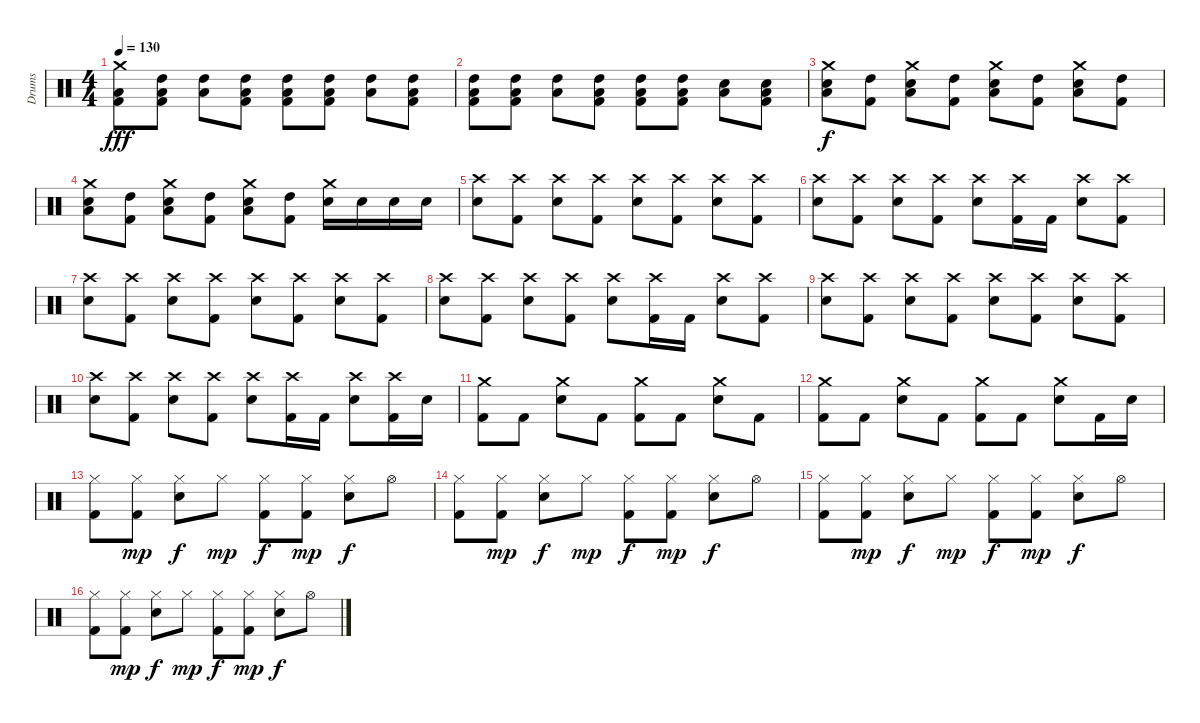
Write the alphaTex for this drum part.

\track ("Drums" "Drums") {instrument percussion}
\staff {score}
\articulation defaults
\ts (4 4)
\tempo 130
\clef neutral
\ks c
("Crash medium (hit)" "Low Tom (hit)" "Kick (hit) 2").8{dy fff} ("High Tom (hit)" "Low Tom (hit)" "Kick (hit) 2").8 ("High Tom (hit)" "Low Tom (hit)").8 ("High Tom (hit)" "Low Tom (hit)" "Kick (hit) 2").8 ("High Tom (hit)" "Low Tom (hit)" "Kick (hit) 2").8 ("High Tom (hit)" "Low Tom (hit)" "Kick (hit) 2").8 ("Low Tom (hit)" "High Tom (hit)").8 ("High Tom (hit)" "Low Tom (hit)" "Kick (hit) 2").8 |
("High Tom (hit)" "Low Tom (hit)" "Kick (hit) 2").8 ("High Tom (hit)" "Low Tom (hit)" "Kick (hit) 2").8 ("High Tom (hit)" "Low Tom (hit)").8 ("High Tom (hit)" "Low Tom (hit)" "Kick (hit) 2").8 ("High Tom (hit)" "Low Tom (hit)" "Kick (hit) 2").8 ("High Tom (hit)" "Low Tom (hit)" "Kick (hit) 2").8 ("Low Tom (hit)" "Snare (hit) 2").8 ("Low Tom (hit)" "Snare (hit) 2" "Kick (hit) 2").8 |
("Crash medium (hit)" "Low Tom (hit)" "Snare (hit) 2").8{dy f} ("High Tom (hit)" "Kick (hit) 2").8 ("Crash medium (hit)" "Low Tom (hit)" "Snare (hit) 2").8 ("High Tom (hit)" "Kick (hit) 2").8 ("Crash medium (hit)" "Low Tom (hit)" "Snare (hit) 2").8 ("High Tom (hit)" "Kick (hit) 2").8 ("Crash medium (hit)" "Low Tom (hit)" "Snare (hit) 2").8 ("High Tom (hit)" "Kick (hit) 2").8 |
("Crash medium (hit)" "Low Tom (hit)" "Snare (hit) 2").8 ("High Tom (hit)" "Kick (hit) 2").8 ("Crash medium (hit)" "Low Tom (hit)" "Snare (hit) 2").8 ("High Tom (hit)" "Kick (hit) 2").8 ("Crash medium (hit)" "Low Tom (hit)" "Snare (hit) 2").8 ("High Tom (hit)" "Kick (hit) 2").8 ("Crash medium (hit)" "Snare (hit) 2").16 "Snare (hit) 2".16 "Snare (hit) 2".16 "Snare (hit) 2".16 |
("Crash high (hit)" "Snare (hit) 2").8 ("Crash high (hit)" "Kick (hit) 2").8 ("Crash high (hit)" "Snare (hit) 2").8 ("Crash high (hit)" "Kick (hit) 2").8 ("Crash high (hit)" "Snare (hit) 2").8 ("Crash high (hit)" "Kick (hit) 2").8 ("Crash high (hit)" "Snare (hit) 2").8 ("Crash high (hit)" "Kick (hit) 2").8 |
("Crash high (hit)" "Snare (hit) 2").8 ("Crash high (hit)" "Kick (hit) 2").8 ("Crash high (hit)" "Snare (hit) 2").8 ("Crash high (hit)" "Kick (hit) 2").8 ("Crash high (hit)" "Snare (hit) 2").8 ("Crash high (hit)" "Kick (hit) 2").16 "Kick (hit) 2".16 ("Crash high (hit)" "Snare (hit) 2").8 ("Crash high (hit)" "Kick (hit) 2").8 |
("Crash high (hit)" "Snare (hit) 2").8 ("Crash high (hit)" "Kick (hit) 2").8 ("Crash high (hit)" "Snare (hit) 2").8 ("Crash high (hit)" "Kick (hit) 2").8 ("Crash high (hit)" "Snare (hit) 2").8 ("Crash high (hit)" "Kick (hit) 2").8 ("Crash high (hit)" "Snare (hit) 2").8 ("Crash high (hit)" "Kick (hit) 2").8 |
("Crash high (hit)" "Snare (hit) 2").8 ("Crash high (hit)" "Kick (hit) 2").8 ("Crash high (hit)" "Snare (hit) 2").8 ("Crash high (hit)" "Kick (hit) 2").8 ("Crash high (hit)" "Snare (hit) 2").8 ("Crash high (hit)" "Kick (hit) 2").16 "Kick (hit) 2".16 ("Crash high (hit)" "Snare (hit) 2").8 ("Crash high (hit)" "Kick (hit) 2").8 |
("Crash high (hit)" "Snare (hit) 2").8 ("Crash high (hit)" "Kick (hit) 2").8 ("Crash high (hit)" "Snare (hit) 2").8 ("Crash high (hit)" "Kick (hit) 2").8 ("Crash high (hit)" "Snare (hit) 2").8 ("Crash high (hit)" "Kick (hit) 2").8 ("Crash high (hit)" "Snare (hit) 2").8 ("Crash high (hit)" "Kick (hit) 2").8 |
("Crash high (hit)" "Snare (hit) 2").8 ("Crash high (hit)" "Kick (hit) 2").8 ("Crash high (hit)" "Snare (hit) 2").8 ("Crash high (hit)" "Kick (hit) 2").8 ("Crash high (hit)" "Snare (hit) 2").8 ("Crash high (hit)" "Kick (hit) 2").16 "Kick (hit) 2".16 ("Crash high (hit)" "Snare (hit) 2").8 ("Crash high (hit)" "Kick (hit) 2").16 "Snare (hit) 2".16 |
("Crash medium (hit)" "Kick (hit) 2").8 "Kick (hit) 2".8 ("Crash medium (hit)" "Snare (hit) 2").8 "Kick (hit) 2".8 ("Crash medium (hit)" "Kick (hit) 2").8 "Kick (hit) 2".8 ("Crash medium (hit)" "Snare (hit) 2").8 "Kick (hit) 2".8 |
("Crash medium (hit)" "Kick (hit) 2").8 "Kick (hit) 2".8 ("Crash medium (hit)" "Snare (hit) 2").8 "Kick (hit) 2".8 ("Crash medium (hit)" "Kick (hit) 2").8 "Kick (hit) 2".8 ("Crash medium (hit)" "Snare (hit) 2").8 "Kick (hit) 2".16 "Snare (hit) 2".16 |
("Hi-Hat (closed)" "Kick (hit) 2").8 ("Hi-Hat (closed)" "Kick (hit) 2").8{dy mp} ("Hi-Hat (closed)" "Snare (hit) 2").8{dy f} "Hi-Hat (closed)".8{dy mp} ("Hi-Hat (closed)" "Kick (hit) 2").8{dy f} ("Hi-Hat (closed)" "Kick (hit) 2").8{dy mp} ("Hi-Hat (closed)" "Snare (hit) 2").8{dy f} "Hi-Hat (open)".8 |
("Hi-Hat (closed)" "Kick (hit) 2").8 ("Hi-Hat (closed)" "Kick (hit) 2").8{dy mp} ("Hi-Hat (closed)" "Snare (hit) 2").8{dy f} "Hi-Hat (closed)".8{dy mp} ("Hi-Hat (closed)" "Kick (hit) 2").8{dy f} ("Hi-Hat (closed)" "Kick (hit) 2").8{dy mp} ("Hi-Hat (closed)" "Snare (hit) 2").8{dy f} "Hi-Hat (open)".8 |
("Hi-Hat (closed)" "Kick (hit) 2").8 ("Hi-Hat (closed)" "Kick (hit) 2").8{dy mp} ("Hi-Hat (closed)" "Snare (hit) 2").8{dy f} "Hi-Hat (closed)".8{dy mp} ("Hi-Hat (closed)" "Kick (hit) 2").8{dy f} ("Hi-Hat (closed)" "Kick (hit) 2").8{dy mp} ("Hi-Hat (closed)" "Snare (hit) 2").8{dy f} "Hi-Hat (open)".8 |
("Hi-Hat (closed)" "Kick (hit) 2").8 ("Hi-Hat (closed)" "Kick (hit) 2").8{dy mp} ("Hi-Hat (closed)" "Snare (hit) 2").8{dy f} "Hi-Hat (closed)".8{dy mp} ("Hi-Hat (closed)" "Kick (hit) 2").8{dy f} ("Hi-Hat (closed)" "Kick (hit) 2").8{dy mp} ("Hi-Hat (closed)" "Snare (hit) 2").8{dy f} "Hi-Hat (open)".8
